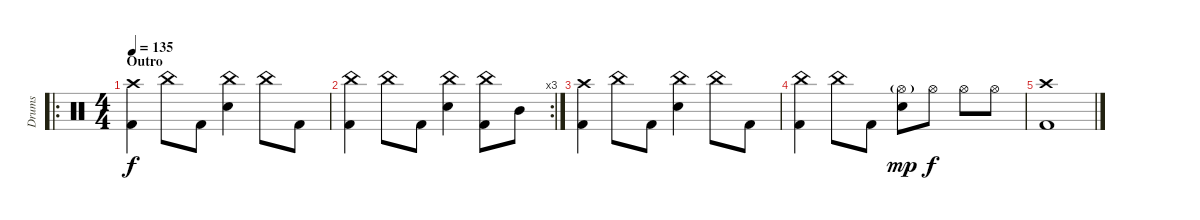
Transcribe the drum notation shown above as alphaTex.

\track ("Drums" "Drums") {instrument percussion}
\staff {score}
\articulation defaults
\ro
\ts (4 4)
\section ("" "Outro")
\tempo 135
\clef neutral
\ks c
("Crash high (hit)" "Kick (hit) 2").4{dy f} "China (hit)".8 "Kick (hit) 2".8 ("China (hit)" "Electric Snare (hit)").4 "China (hit)".8 "Kick (hit) 2".8 |
\rc 3
("China (hit)" "Kick (hit) 2").4 "China (hit)".8 "Kick (hit) 2".8 ("China (hit)" "Electric Snare (hit)").4 ("China (hit)" "Kick (hit) 2").8 "Mid Tom (hit)".8 |
("Crash high (hit)" "Kick (hit) 2").4 "China (hit)".8 "Kick (hit) 2".8 ("China (hit)" "Electric Snare (hit)").4 "China (hit)".8 "Kick (hit) 2".8 |
("China (hit)" "Kick (hit) 2").4 "China (hit)".8 "Kick (hit) 2".8 ("Hi-Hat (open)"{g} "Electric Snare (hit)").8{dy mp} "Hi-Hat (open)".8{dy f} "Hi-Hat (open)".8 "Hi-Hat (open)".8 |
("Crash high (hit)" "Kick (hit) 2").1
